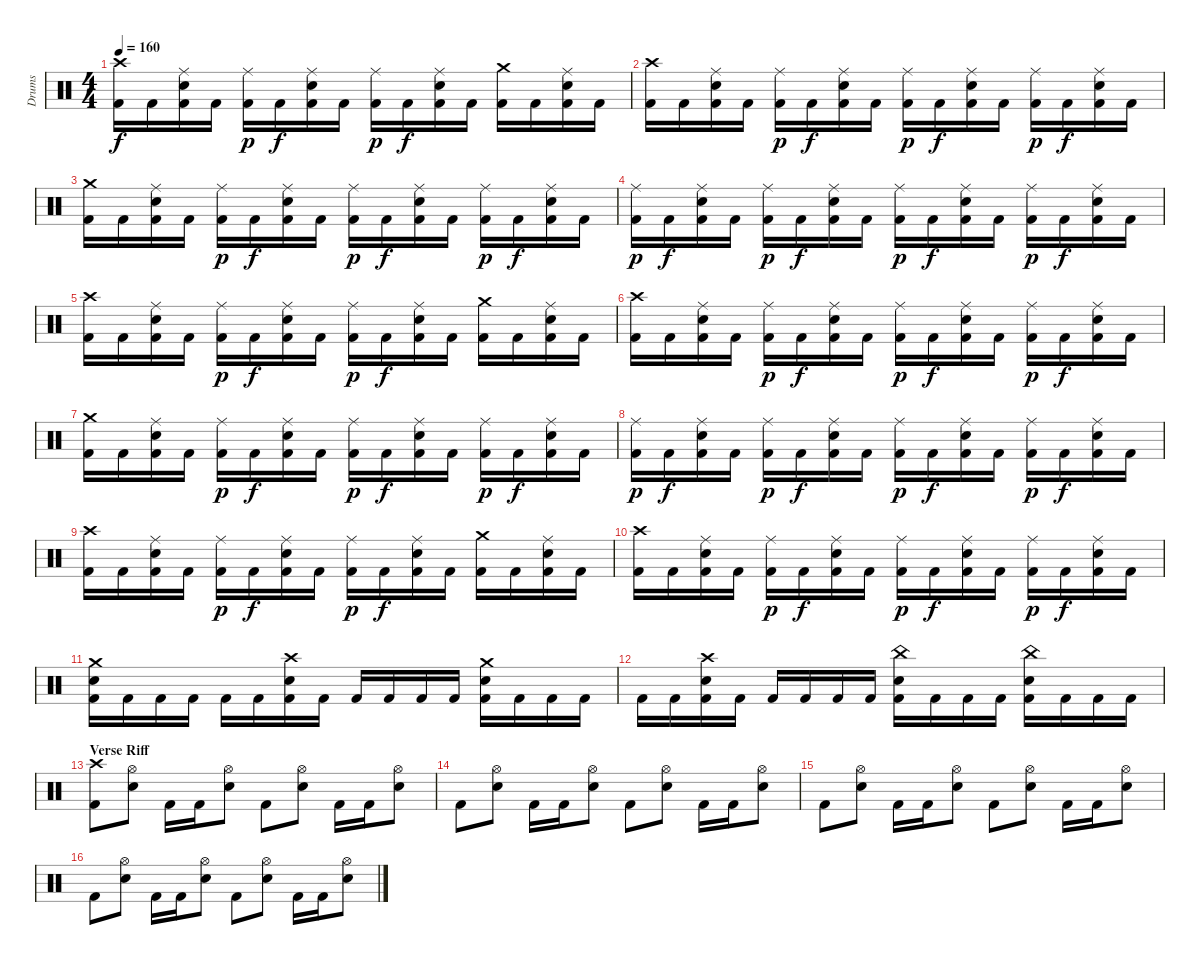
\track ("Drums" "Drums") {instrument percussion}
\staff {score}
\articulation defaults
\ts (4 4)
\tempo 160
\clef neutral
\ks c
("Crash high (hit)" "Kick (hit) 2").16{dy f} "Kick (hit) 2".16 ("Ride (middle)" "Snare (hit) 2" "Kick (hit) 2").16 "Kick (hit) 2".16 ("Ride (middle)" "Kick (hit) 2").16{dy p} "Kick (hit) 2".16{dy f} ("Ride (middle)" "Snare (hit) 2" "Kick (hit) 2").16 "Kick (hit) 2".16 ("Ride (middle)" "Kick (hit) 2").16{dy p} "Kick (hit) 2".16{dy f} ("Ride (middle)" "Snare (hit) 2" "Kick (hit) 2").16 "Kick (hit) 2".16 ("Crash medium (hit)" "Kick (hit) 2").16 "Kick (hit) 2".16 ("Ride (middle)" "Snare (hit) 2" "Kick (hit) 2").16 "Kick (hit) 2".16 |
("Crash high (hit)" "Kick (hit) 2").16 "Kick (hit) 2".16 ("Ride (middle)" "Snare (hit) 2" "Kick (hit) 2").16 "Kick (hit) 2".16 ("Ride (middle)" "Kick (hit) 2").16{dy p} "Kick (hit) 2".16{dy f} ("Ride (middle)" "Snare (hit) 2" "Kick (hit) 2").16 "Kick (hit) 2".16 ("Ride (middle)" "Kick (hit) 2").16{dy p} "Kick (hit) 2".16{dy f} ("Ride (middle)" "Snare (hit) 2" "Kick (hit) 2").16 "Kick (hit) 2".16 ("Ride (middle)" "Kick (hit) 2").16{dy p} "Kick (hit) 2".16{dy f} ("Ride (middle)" "Snare (hit) 2" "Kick (hit) 2").16 "Kick (hit) 2".16 |
("Crash medium (hit)" "Kick (hit) 2").16 "Kick (hit) 2".16 ("Ride (middle)" "Snare (hit) 2" "Kick (hit) 2").16 "Kick (hit) 2".16 ("Ride (middle)" "Kick (hit) 2").16{dy p} "Kick (hit) 2".16{dy f} ("Ride (middle)" "Snare (hit) 2" "Kick (hit) 2").16 "Kick (hit) 2".16 ("Ride (middle)" "Kick (hit) 2").16{dy p} "Kick (hit) 2".16{dy f} ("Ride (middle)" "Snare (hit) 2" "Kick (hit) 2").16 "Kick (hit) 2".16 ("Ride (middle)" "Kick (hit) 2").16{dy p} "Kick (hit) 2".16{dy f} ("Ride (middle)" "Snare (hit) 2" "Kick (hit) 2").16 "Kick (hit) 2".16 |
("Ride (middle)" "Kick (hit) 2").16{dy p} "Kick (hit) 2".16{dy f} ("Ride (middle)" "Snare (hit) 2" "Kick (hit) 2").16 "Kick (hit) 2".16 ("Ride (middle)" "Kick (hit) 2").16{dy p} "Kick (hit) 2".16{dy f} ("Ride (middle)" "Snare (hit) 2" "Kick (hit) 2").16 "Kick (hit) 2".16 ("Ride (middle)" "Kick (hit) 2").16{dy p} "Kick (hit) 2".16{dy f} ("Ride (middle)" "Snare (hit) 2" "Kick (hit) 2").16 "Kick (hit) 2".16 ("Ride (middle)" "Kick (hit) 2").16{dy p} "Kick (hit) 2".16{dy f} ("Ride (middle)" "Snare (hit) 2" "Kick (hit) 2").16 "Kick (hit) 2".16 |
("Crash high (hit)" "Kick (hit) 2").16 "Kick (hit) 2".16 ("Ride (middle)" "Snare (hit) 2" "Kick (hit) 2").16 "Kick (hit) 2".16 ("Ride (middle)" "Kick (hit) 2").16{dy p} "Kick (hit) 2".16{dy f} ("Ride (middle)" "Snare (hit) 2" "Kick (hit) 2").16 "Kick (hit) 2".16 ("Ride (middle)" "Kick (hit) 2").16{dy p} "Kick (hit) 2".16{dy f} ("Ride (middle)" "Snare (hit) 2" "Kick (hit) 2").16 "Kick (hit) 2".16 ("Crash medium (hit)" "Kick (hit) 2").16 "Kick (hit) 2".16 ("Ride (middle)" "Snare (hit) 2" "Kick (hit) 2").16 "Kick (hit) 2".16 |
("Crash high (hit)" "Kick (hit) 2").16 "Kick (hit) 2".16 ("Ride (middle)" "Snare (hit) 2" "Kick (hit) 2").16 "Kick (hit) 2".16 ("Ride (middle)" "Kick (hit) 2").16{dy p} "Kick (hit) 2".16{dy f} ("Ride (middle)" "Snare (hit) 2" "Kick (hit) 2").16 "Kick (hit) 2".16 ("Ride (middle)" "Kick (hit) 2").16{dy p} "Kick (hit) 2".16{dy f} ("Ride (middle)" "Snare (hit) 2" "Kick (hit) 2").16 "Kick (hit) 2".16 ("Ride (middle)" "Kick (hit) 2").16{dy p} "Kick (hit) 2".16{dy f} ("Ride (middle)" "Snare (hit) 2" "Kick (hit) 2").16 "Kick (hit) 2".16 |
("Crash medium (hit)" "Kick (hit) 2").16 "Kick (hit) 2".16 ("Ride (middle)" "Snare (hit) 2" "Kick (hit) 2").16 "Kick (hit) 2".16 ("Ride (middle)" "Kick (hit) 2").16{dy p} "Kick (hit) 2".16{dy f} ("Ride (middle)" "Snare (hit) 2" "Kick (hit) 2").16 "Kick (hit) 2".16 ("Ride (middle)" "Kick (hit) 2").16{dy p} "Kick (hit) 2".16{dy f} ("Ride (middle)" "Snare (hit) 2" "Kick (hit) 2").16 "Kick (hit) 2".16 ("Ride (middle)" "Kick (hit) 2").16{dy p} "Kick (hit) 2".16{dy f} ("Ride (middle)" "Snare (hit) 2" "Kick (hit) 2").16 "Kick (hit) 2".16 |
("Ride (middle)" "Kick (hit) 2").16{dy p} "Kick (hit) 2".16{dy f} ("Ride (middle)" "Snare (hit) 2" "Kick (hit) 2").16 "Kick (hit) 2".16 ("Ride (middle)" "Kick (hit) 2").16{dy p} "Kick (hit) 2".16{dy f} ("Ride (middle)" "Snare (hit) 2" "Kick (hit) 2").16 "Kick (hit) 2".16 ("Ride (middle)" "Kick (hit) 2").16{dy p} "Kick (hit) 2".16{dy f} ("Ride (middle)" "Snare (hit) 2" "Kick (hit) 2").16 "Kick (hit) 2".16 ("Ride (middle)" "Kick (hit) 2").16{dy p} "Kick (hit) 2".16{dy f} ("Ride (middle)" "Snare (hit) 2" "Kick (hit) 2").16 "Kick (hit) 2".16 |
("Crash high (hit)" "Kick (hit) 2").16 "Kick (hit) 2".16 ("Ride (middle)" "Snare (hit) 2" "Kick (hit) 2").16 "Kick (hit) 2".16 ("Ride (middle)" "Kick (hit) 2").16{dy p} "Kick (hit) 2".16{dy f} ("Ride (middle)" "Snare (hit) 2" "Kick (hit) 2").16 "Kick (hit) 2".16 ("Ride (middle)" "Kick (hit) 2").16{dy p} "Kick (hit) 2".16{dy f} ("Ride (middle)" "Snare (hit) 2" "Kick (hit) 2").16 "Kick (hit) 2".16 ("Crash medium (hit)" "Kick (hit) 2").16 "Kick (hit) 2".16 ("Ride (middle)" "Snare (hit) 2" "Kick (hit) 2").16 "Kick (hit) 2".16 |
("Crash high (hit)" "Kick (hit) 2").16 "Kick (hit) 2".16 ("Ride (middle)" "Snare (hit) 2" "Kick (hit) 2").16 "Kick (hit) 2".16 ("Ride (middle)" "Kick (hit) 2").16{dy p} "Kick (hit) 2".16{dy f} ("Ride (middle)" "Snare (hit) 2" "Kick (hit) 2").16 "Kick (hit) 2".16 ("Ride (middle)" "Kick (hit) 2").16{dy p} "Kick (hit) 2".16{dy f} ("Ride (middle)" "Snare (hit) 2" "Kick (hit) 2").16 "Kick (hit) 2".16 ("Ride (middle)" "Kick (hit) 2").16{dy p} "Kick (hit) 2".16{dy f} ("Ride (middle)" "Snare (hit) 2" "Kick (hit) 2").16 "Kick (hit) 2".16 |
("Crash medium (hit)" "Snare (hit) 2" "Kick (hit) 2").16 "Kick (hit) 2".16 "Kick (hit) 2".16 "Kick (hit) 2".16 "Kick (hit) 2".16 "Kick (hit) 2".16 ("Crash high (hit)" "Snare (hit) 2" "Kick (hit) 2").16 "Kick (hit) 2".16 "Kick (hit) 2".16 "Kick (hit) 2".16 "Kick (hit) 2".16 "Kick (hit) 2".16 ("Crash medium (hit)" "Snare (hit) 2" "Kick (hit) 2").16 "Kick (hit) 2".16 "Kick (hit) 2".16 "Kick (hit) 2".16 |
"Kick (hit) 2".16 "Kick (hit) 2".16 ("Crash high (hit)" "Snare (hit) 2" "Kick (hit) 2").16 "Kick (hit) 2".16 "Kick (hit) 2".16 "Kick (hit) 2".16 "Kick (hit) 2".16 "Kick (hit) 2".16 ("China (hit)" "Snare (hit) 2" "Kick (hit) 2").16 "Kick (hit) 2".16 "Kick (hit) 2".16 "Kick (hit) 2".16 ("China (hit)" "Snare (hit) 2" "Kick (hit) 2").16 "Kick (hit) 2".16 "Kick (hit) 2".16 "Kick (hit) 2".16 |
\section ("" "Verse Riff")
("Crash high (hit)" "Kick (hit) 2").8 ("Hi-Hat (open)" "Snare (hit) 2").8 "Kick (hit) 2".16 "Kick (hit) 2".16 ("Hi-Hat (open)" "Snare (hit) 2").8 "Kick (hit) 2".8 ("Hi-Hat (open)" "Snare (hit) 2").8 "Kick (hit) 2".16 "Kick (hit) 2".16 ("Hi-Hat (open)" "Snare (hit) 2").8 |
"Kick (hit) 2".8 ("Hi-Hat (open)" "Snare (hit) 2").8 "Kick (hit) 2".16 "Kick (hit) 2".16 ("Hi-Hat (open)" "Snare (hit) 2").8 "Kick (hit) 2".8 ("Hi-Hat (open)" "Snare (hit) 2").8 "Kick (hit) 2".16 "Kick (hit) 2".16 ("Hi-Hat (open)" "Snare (hit) 2").8 |
"Kick (hit) 2".8 ("Hi-Hat (open)" "Snare (hit) 2").8 "Kick (hit) 2".16 "Kick (hit) 2".16 ("Hi-Hat (open)" "Snare (hit) 2").8 "Kick (hit) 2".8 ("Hi-Hat (open)" "Snare (hit) 2").8 "Kick (hit) 2".16 "Kick (hit) 2".16 ("Hi-Hat (open)" "Snare (hit) 2").8 |
"Kick (hit) 2".8 ("Hi-Hat (open)" "Snare (hit) 2").8 "Kick (hit) 2".16 "Kick (hit) 2".16 ("Hi-Hat (open)" "Snare (hit) 2").8 "Kick (hit) 2".8 ("Hi-Hat (open)" "Snare (hit) 2").8 "Kick (hit) 2".16 "Kick (hit) 2".16 ("Hi-Hat (open)" "Snare (hit) 2").8
